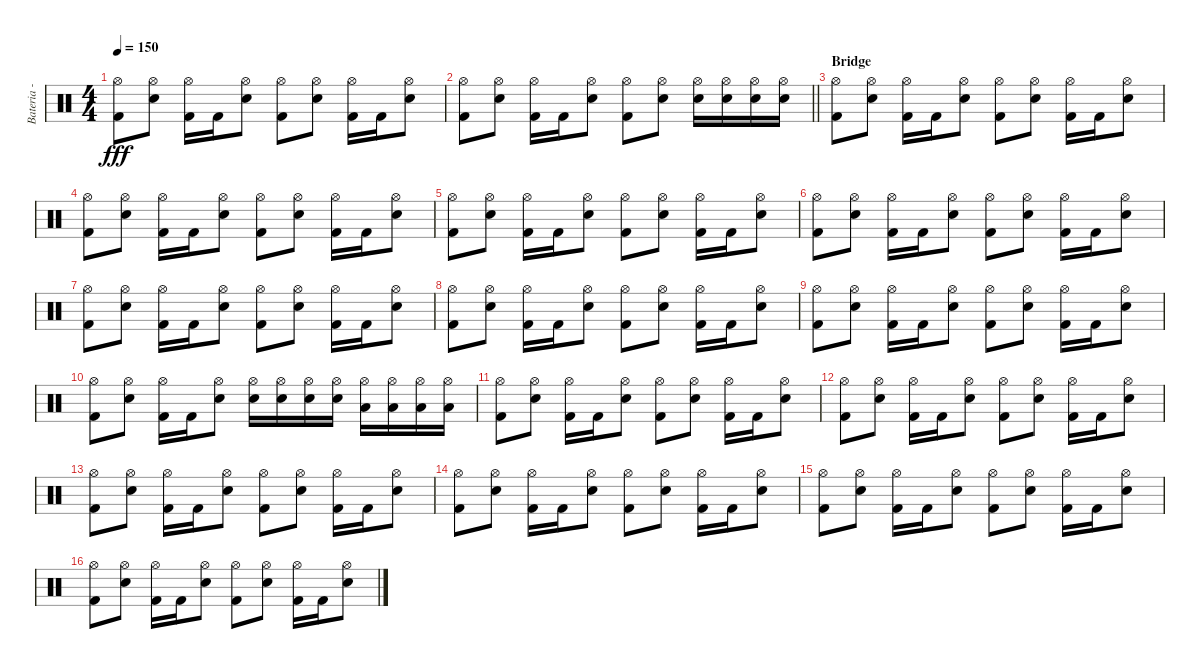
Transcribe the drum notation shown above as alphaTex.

\track ("Bateria - Larzon" "Bateria - ") {instrument percussion}
\staff {score}
\articulation defaults
\ts (4 4)
\tempo 150
\clef neutral
\ks c
("Kick (hit) 2" "Hi-Hat (open)").8{dy fff} ("Hi-Hat (open)" "Snare (hit) 2").8 ("Kick (hit) 2" "Hi-Hat (open)").16 "Kick (hit) 2".16 ("Hi-Hat (open)" "Snare (hit) 2").8 ("Kick (hit) 2" "Hi-Hat (open)").8 ("Hi-Hat (open)" "Snare (hit) 2").8 ("Kick (hit) 2" "Hi-Hat (open)").16 "Kick (hit) 2".16 ("Hi-Hat (open)" "Snare (hit) 2").8 |
\barLineRight lightlight
("Kick (hit) 2" "Hi-Hat (open)").8 ("Hi-Hat (open)" "Snare (hit) 2").8 ("Kick (hit) 2" "Hi-Hat (open)").16 "Kick (hit) 2".16 ("Hi-Hat (open)" "Snare (hit) 2").8 ("Kick (hit) 2" "Hi-Hat (open)").8 ("Hi-Hat (open)" "Snare (hit) 2").8 ("Hi-Hat (open)" "Snare (hit) 2").16 ("Hi-Hat (open)" "Snare (hit) 2").16 ("Hi-Hat (open)" "Snare (hit) 2").16 ("Hi-Hat (open)" "Snare (hit) 2").16 |
\section ("" "Bridge")
("Kick (hit) 2" "Hi-Hat (open)").8 ("Hi-Hat (open)" "Snare (hit) 2").8 ("Kick (hit) 2" "Hi-Hat (open)").16 "Kick (hit) 2".16 ("Hi-Hat (open)" "Snare (hit) 2").8 ("Kick (hit) 2" "Hi-Hat (open)").8 ("Hi-Hat (open)" "Snare (hit) 2").8 ("Kick (hit) 2" "Hi-Hat (open)").16 "Kick (hit) 2".16 ("Hi-Hat (open)" "Snare (hit) 2").8 |
("Kick (hit) 2" "Hi-Hat (open)").8 ("Hi-Hat (open)" "Snare (hit) 2").8 ("Kick (hit) 2" "Hi-Hat (open)").16 "Kick (hit) 2".16 ("Hi-Hat (open)" "Snare (hit) 2").8 ("Kick (hit) 2" "Hi-Hat (open)").8 ("Hi-Hat (open)" "Snare (hit) 2").8 ("Kick (hit) 2" "Hi-Hat (open)").16 "Kick (hit) 2".16 ("Hi-Hat (open)" "Snare (hit) 2").8 |
("Kick (hit) 2" "Hi-Hat (open)").8 ("Hi-Hat (open)" "Snare (hit) 2").8 ("Kick (hit) 2" "Hi-Hat (open)").16 "Kick (hit) 2".16 ("Hi-Hat (open)" "Snare (hit) 2").8 ("Kick (hit) 2" "Hi-Hat (open)").8 ("Hi-Hat (open)" "Snare (hit) 2").8 ("Kick (hit) 2" "Hi-Hat (open)").16 "Kick (hit) 2".16 ("Hi-Hat (open)" "Snare (hit) 2").8 |
("Kick (hit) 2" "Hi-Hat (open)").8 ("Hi-Hat (open)" "Snare (hit) 2").8 ("Kick (hit) 2" "Hi-Hat (open)").16 "Kick (hit) 2".16 ("Hi-Hat (open)" "Snare (hit) 2").8 ("Kick (hit) 2" "Hi-Hat (open)").8 ("Hi-Hat (open)" "Snare (hit) 2").8 ("Kick (hit) 2" "Hi-Hat (open)").16 "Kick (hit) 2".16 ("Hi-Hat (open)" "Snare (hit) 2").8 |
("Kick (hit) 2" "Hi-Hat (open)").8 ("Hi-Hat (open)" "Snare (hit) 2").8 ("Kick (hit) 2" "Hi-Hat (open)").16 "Kick (hit) 2".16 ("Hi-Hat (open)" "Snare (hit) 2").8 ("Kick (hit) 2" "Hi-Hat (open)").8 ("Hi-Hat (open)" "Snare (hit) 2").8 ("Kick (hit) 2" "Hi-Hat (open)").16 "Kick (hit) 2".16 ("Hi-Hat (open)" "Snare (hit) 2").8 |
("Kick (hit) 2" "Hi-Hat (open)").8 ("Hi-Hat (open)" "Snare (hit) 2").8 ("Kick (hit) 2" "Hi-Hat (open)").16 "Kick (hit) 2".16 ("Hi-Hat (open)" "Snare (hit) 2").8 ("Kick (hit) 2" "Hi-Hat (open)").8 ("Hi-Hat (open)" "Snare (hit) 2").8 ("Kick (hit) 2" "Hi-Hat (open)").16 "Kick (hit) 2".16 ("Hi-Hat (open)" "Snare (hit) 2").8 |
("Kick (hit) 2" "Hi-Hat (open)").8 ("Hi-Hat (open)" "Snare (hit) 2").8 ("Kick (hit) 2" "Hi-Hat (open)").16 "Kick (hit) 2".16 ("Hi-Hat (open)" "Snare (hit) 2").8 ("Kick (hit) 2" "Hi-Hat (open)").8 ("Hi-Hat (open)" "Snare (hit) 2").8 ("Kick (hit) 2" "Hi-Hat (open)").16 "Kick (hit) 2".16 ("Hi-Hat (open)" "Snare (hit) 2").8 |
("Kick (hit) 2" "Hi-Hat (open)").8 ("Hi-Hat (open)" "Snare (hit) 2").8 ("Kick (hit) 2" "Hi-Hat (open)").16 "Kick (hit) 2".16 ("Hi-Hat (open)" "Snare (hit) 2").8 ("Hi-Hat (open)" "Snare (hit) 2").16 ("Hi-Hat (open)" "Snare (hit) 2").16 ("Hi-Hat (open)" "Snare (hit) 2").16 ("Hi-Hat (open)" "Snare (hit) 2").16 ("Hi-Hat (open)" "Low Tom (hit)").16 ("Hi-Hat (open)" "Low Tom (hit)").16 ("Hi-Hat (open)" "Low Tom (hit)").16 ("Hi-Hat (open)" "Low Tom (hit)").16 |
("Kick (hit) 2" "Hi-Hat (open)").8 ("Hi-Hat (open)" "Snare (hit) 2").8 ("Kick (hit) 2" "Hi-Hat (open)").16 "Kick (hit) 2".16 ("Hi-Hat (open)" "Snare (hit) 2").8 ("Kick (hit) 2" "Hi-Hat (open)").8 ("Hi-Hat (open)" "Snare (hit) 2").8 ("Kick (hit) 2" "Hi-Hat (open)").16 "Kick (hit) 2".16 ("Hi-Hat (open)" "Snare (hit) 2").8 |
("Kick (hit) 2" "Hi-Hat (open)").8 ("Hi-Hat (open)" "Snare (hit) 2").8 ("Kick (hit) 2" "Hi-Hat (open)").16 "Kick (hit) 2".16 ("Hi-Hat (open)" "Snare (hit) 2").8 ("Kick (hit) 2" "Hi-Hat (open)").8 ("Hi-Hat (open)" "Snare (hit) 2").8 ("Kick (hit) 2" "Hi-Hat (open)").16 "Kick (hit) 2".16 ("Hi-Hat (open)" "Snare (hit) 2").8 |
("Kick (hit) 2" "Hi-Hat (open)").8 ("Hi-Hat (open)" "Snare (hit) 2").8 ("Kick (hit) 2" "Hi-Hat (open)").16 "Kick (hit) 2".16 ("Hi-Hat (open)" "Snare (hit) 2").8 ("Kick (hit) 2" "Hi-Hat (open)").8 ("Hi-Hat (open)" "Snare (hit) 2").8 ("Kick (hit) 2" "Hi-Hat (open)").16 "Kick (hit) 2".16 ("Hi-Hat (open)" "Snare (hit) 2").8 |
("Kick (hit) 2" "Hi-Hat (open)").8 ("Hi-Hat (open)" "Snare (hit) 2").8 ("Kick (hit) 2" "Hi-Hat (open)").16 "Kick (hit) 2".16 ("Hi-Hat (open)" "Snare (hit) 2").8 ("Kick (hit) 2" "Hi-Hat (open)").8 ("Hi-Hat (open)" "Snare (hit) 2").8 ("Kick (hit) 2" "Hi-Hat (open)").16 "Kick (hit) 2".16 ("Hi-Hat (open)" "Snare (hit) 2").8 |
("Kick (hit) 2" "Hi-Hat (open)").8 ("Hi-Hat (open)" "Snare (hit) 2").8 ("Kick (hit) 2" "Hi-Hat (open)").16 "Kick (hit) 2".16 ("Hi-Hat (open)" "Snare (hit) 2").8 ("Kick (hit) 2" "Hi-Hat (open)").8 ("Hi-Hat (open)" "Snare (hit) 2").8 ("Kick (hit) 2" "Hi-Hat (open)").16 "Kick (hit) 2".16 ("Hi-Hat (open)" "Snare (hit) 2").8 |
("Kick (hit) 2" "Hi-Hat (open)").8 ("Hi-Hat (open)" "Snare (hit) 2").8 ("Kick (hit) 2" "Hi-Hat (open)").16 "Kick (hit) 2".16 ("Hi-Hat (open)" "Snare (hit) 2").8 ("Kick (hit) 2" "Hi-Hat (open)").8 ("Hi-Hat (open)" "Snare (hit) 2").8 ("Kick (hit) 2" "Hi-Hat (open)").16 "Kick (hit) 2".16 ("Hi-Hat (open)" "Snare (hit) 2").8
